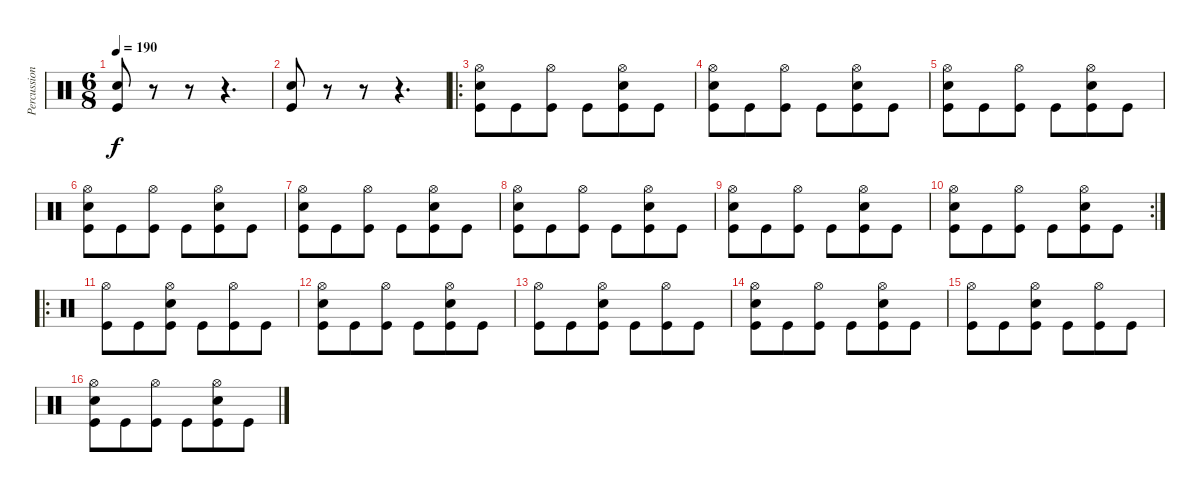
\track ("Percussion" "Percussion") {instrument percussion}
\staff {score}
\articulation defaults
\ts (6 8)
\tempo 190
\clef neutral
\ks c
("Snare (hit) 2" "Kick (hit)").8{dy f} r.8 r.8 r.4{d} |
("Snare (hit) 2" "Kick (hit)").8 r.8 r.8 r.4{d} |
\ro
("Hi-Hat (open)" "Snare (hit) 2" "Kick (hit)").8 "Kick (hit)".8 ("Hi-Hat (open)" "Kick (hit)").8 "Kick (hit)".8 ("Hi-Hat (open)" "Snare (hit) 2" "Kick (hit)").8 "Kick (hit)".8 |
("Hi-Hat (open)" "Snare (hit) 2" "Kick (hit)").8 "Kick (hit)".8 ("Hi-Hat (open)" "Kick (hit)").8 "Kick (hit)".8 ("Hi-Hat (open)" "Snare (hit) 2" "Kick (hit)").8 "Kick (hit)".8 |
("Hi-Hat (open)" "Snare (hit) 2" "Kick (hit)").8 "Kick (hit)".8 ("Hi-Hat (open)" "Kick (hit)").8 "Kick (hit)".8 ("Hi-Hat (open)" "Snare (hit) 2" "Kick (hit)").8 "Kick (hit)".8 |
("Hi-Hat (open)" "Snare (hit) 2" "Kick (hit)").8 "Kick (hit)".8 ("Hi-Hat (open)" "Kick (hit)").8 "Kick (hit)".8 ("Hi-Hat (open)" "Snare (hit) 2" "Kick (hit)").8 "Kick (hit)".8 |
("Hi-Hat (open)" "Snare (hit) 2" "Kick (hit)").8 "Kick (hit)".8 ("Hi-Hat (open)" "Kick (hit)").8 "Kick (hit)".8 ("Hi-Hat (open)" "Snare (hit) 2" "Kick (hit)").8 "Kick (hit)".8 |
("Hi-Hat (open)" "Snare (hit) 2" "Kick (hit)").8 "Kick (hit)".8 ("Hi-Hat (open)" "Kick (hit)").8 "Kick (hit)".8 ("Hi-Hat (open)" "Snare (hit) 2" "Kick (hit)").8 "Kick (hit)".8 |
("Hi-Hat (open)" "Snare (hit) 2" "Kick (hit)").8 "Kick (hit)".8 ("Hi-Hat (open)" "Kick (hit)").8 "Kick (hit)".8 ("Hi-Hat (open)" "Snare (hit) 2" "Kick (hit)").8 "Kick (hit)".8 |
\rc 2
("Hi-Hat (open)" "Snare (hit) 2" "Kick (hit)").8 "Kick (hit)".8 ("Hi-Hat (open)" "Kick (hit)").8 "Kick (hit)".8 ("Hi-Hat (open)" "Snare (hit) 2" "Kick (hit)").8 "Kick (hit)".8 |
\ro
("Hi-Hat (open)" "Kick (hit)").8 "Kick (hit)".8 ("Hi-Hat (open)" "Snare (hit) 2" "Kick (hit)").8 "Kick (hit)".8 ("Hi-Hat (open)" "Kick (hit)").8 "Kick (hit)".8 |
("Hi-Hat (open)" "Snare (hit) 2" "Kick (hit)").8 "Kick (hit)".8 ("Hi-Hat (open)" "Kick (hit)").8 "Kick (hit)".8 ("Hi-Hat (open)" "Snare (hit) 2" "Kick (hit)").8 "Kick (hit)".8 |
("Hi-Hat (open)" "Kick (hit)").8 "Kick (hit)".8 ("Hi-Hat (open)" "Snare (hit) 2" "Kick (hit)").8 "Kick (hit)".8 ("Hi-Hat (open)" "Kick (hit)").8 "Kick (hit)".8 |
("Hi-Hat (open)" "Snare (hit) 2" "Kick (hit)").8 "Kick (hit)".8 ("Hi-Hat (open)" "Kick (hit)").8 "Kick (hit)".8 ("Hi-Hat (open)" "Snare (hit) 2" "Kick (hit)").8 "Kick (hit)".8 |
("Hi-Hat (open)" "Kick (hit)").8 "Kick (hit)".8 ("Hi-Hat (open)" "Snare (hit) 2" "Kick (hit)").8 "Kick (hit)".8 ("Hi-Hat (open)" "Kick (hit)").8 "Kick (hit)".8 |
("Hi-Hat (open)" "Snare (hit) 2" "Kick (hit)").8 "Kick (hit)".8 ("Hi-Hat (open)" "Kick (hit)").8 "Kick (hit)".8 ("Hi-Hat (open)" "Snare (hit) 2" "Kick (hit)").8 "Kick (hit)".8
